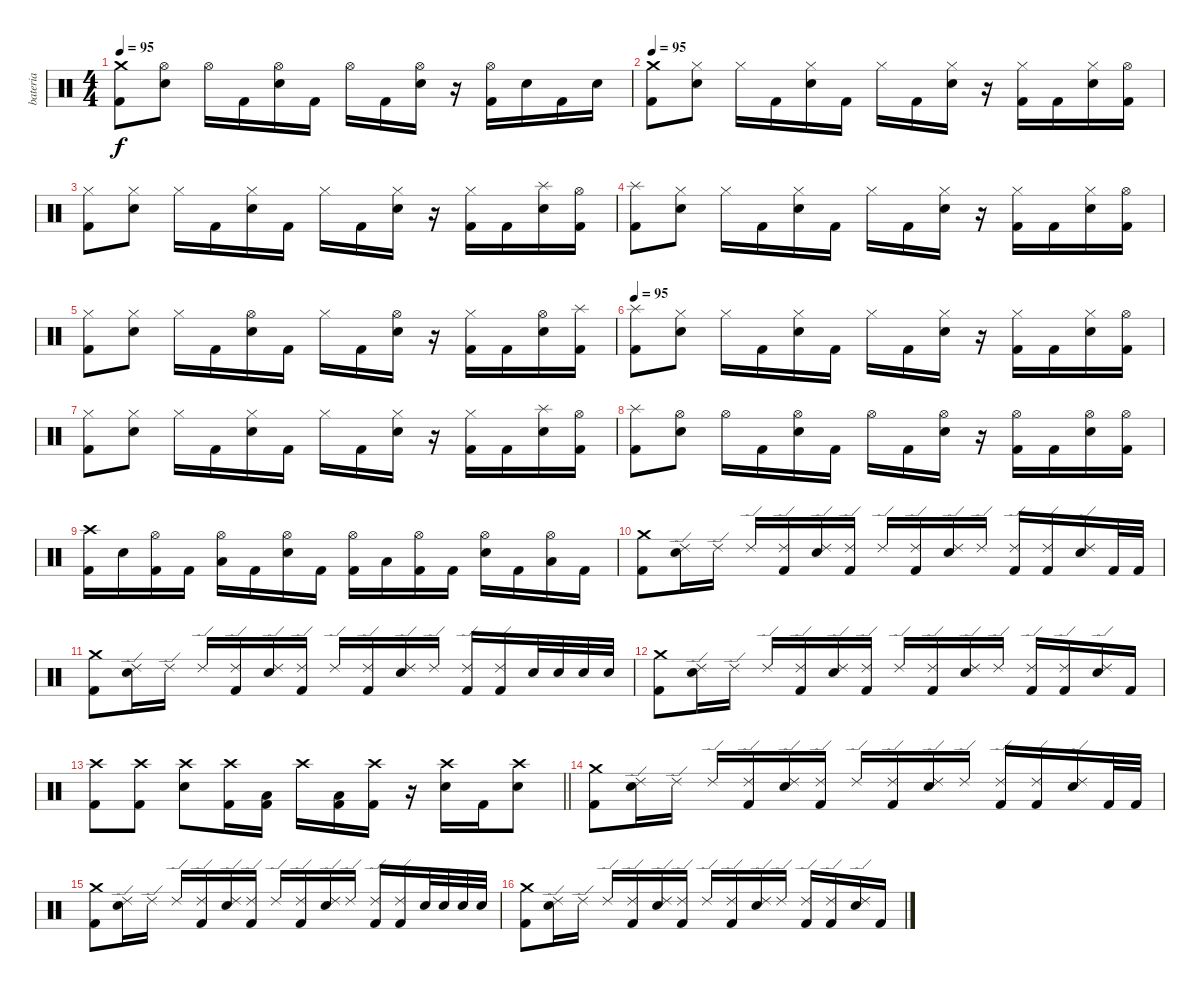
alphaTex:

\track ("bateria" "bateria") {instrument percussion}
\staff {score}
\articulation defaults
\ts (4 4)
\tempo 95
\clef neutral
\ks c
("Crash medium (hit)" "Kick (hit) 2").8{dy f} ("Hi-Hat (open)" "Electric Snare (hit)").8 "Hi-Hat (open)".16 "Kick (hit) 2".16 ("Hi-Hat (open)" "Electric Snare (hit)").16 "Kick (hit) 2".16 "Hi-Hat (open)".16 "Kick (hit) 2".16 ("Hi-Hat (open)" "Electric Snare (hit)").16 r.16 ("Hi-Hat (open)" "Kick (hit) 2").16 "Electric Snare (hit)".16 "Kick (hit) 2".16 "Electric Snare (hit)".16 |
\tempo 95
("Crash medium (hit)" "Kick (hit) 2").8 ("Hi-Hat (closed)" "Electric Snare (hit)").8 "Hi-Hat (closed)".16 "Kick (hit) 2".16 ("Hi-Hat (closed)" "Electric Snare (hit)").16 "Kick (hit) 2".16 "Hi-Hat (closed)".16 "Kick (hit) 2".16 ("Hi-Hat (closed)" "Electric Snare (hit)").16 r.16 ("Hi-Hat (closed)" "Kick (hit) 2").16 "Kick (hit) 2".16 ("Hi-Hat (closed)" "Electric Snare (hit)").16 ("Hi-Hat (open)" "Kick (hit) 2").16 |
("Hi-Hat (closed)" "Kick (hit) 2").8 ("Hi-Hat (closed)" "Electric Snare (hit)").8 "Hi-Hat (closed)".16 "Kick (hit) 2".16 ("Hi-Hat (closed)" "Electric Snare (hit)").16 "Kick (hit) 2".16 "Hi-Hat (closed)".16 "Kick (hit) 2".16 ("Hi-Hat (closed)" "Electric Snare (hit)").16 r.16 ("Hi-Hat (closed)" "Kick (hit) 2").16 "Kick (hit) 2".16 ("Splash (hit)" "Electric Snare (hit)").16 ("Hi-Hat (open)" "Kick (hit) 2").16 |
("Splash (hit)" "Kick (hit) 2").8 ("Hi-Hat (closed)" "Electric Snare (hit)").8 "Hi-Hat (closed)".16 "Kick (hit) 2".16 ("Hi-Hat (closed)" "Electric Snare (hit)").16 "Kick (hit) 2".16 "Hi-Hat (closed)".16 "Kick (hit) 2".16 ("Hi-Hat (closed)" "Electric Snare (hit)").16 r.16 ("Hi-Hat (closed)" "Kick (hit) 2").16 "Kick (hit) 2".16 ("Hi-Hat (closed)" "Electric Snare (hit)").16 ("Hi-Hat (open)" "Kick (hit) 2").16 |
("Hi-Hat (closed)" "Kick (hit) 2").8 ("Hi-Hat (closed)" "Electric Snare (hit)").8 "Hi-Hat (closed)".16 "Kick (hit) 2".16 ("Hi-Hat (open)" "Electric Snare (hit)").16 "Kick (hit) 2".16 "Hi-Hat (closed)".16 "Kick (hit) 2".16 ("Hi-Hat (open)" "Electric Snare (hit)").16 r.16 ("Hi-Hat (closed)" "Kick (hit) 2").16 "Kick (hit) 2".16 ("Hi-Hat (open)" "Electric Snare (hit)").16 ("Splash (hit)" "Kick (hit) 2").16 |
\tempo 95
("Splash (hit)" "Kick (hit) 2").8 ("Hi-Hat (closed)" "Electric Snare (hit)").8 "Hi-Hat (closed)".16 "Kick (hit) 2".16 ("Hi-Hat (closed)" "Electric Snare (hit)").16 "Kick (hit) 2".16 "Hi-Hat (closed)".16 "Kick (hit) 2".16 ("Hi-Hat (closed)" "Electric Snare (hit)").16 r.16 ("Hi-Hat (closed)" "Kick (hit) 2").16 "Kick (hit) 2".16 ("Hi-Hat (closed)" "Electric Snare (hit)").16 ("Hi-Hat (open)" "Kick (hit) 2").16 |
("Hi-Hat (closed)" "Kick (hit) 2").8 ("Hi-Hat (closed)" "Electric Snare (hit)").8 "Hi-Hat (closed)".16 "Kick (hit) 2".16 ("Hi-Hat (closed)" "Electric Snare (hit)").16 "Kick (hit) 2".16 "Hi-Hat (closed)".16 "Kick (hit) 2".16 ("Hi-Hat (closed)" "Electric Snare (hit)").16 r.16 ("Hi-Hat (closed)" "Kick (hit) 2").16 "Kick (hit) 2".16 ("Splash (hit)" "Electric Snare (hit)").16 ("Hi-Hat (open)" "Kick (hit) 2").16 |
("Splash (hit)" "Kick (hit) 2").8 ("Hi-Hat (open)" "Electric Snare (hit)").8 "Hi-Hat (open)".16 "Kick (hit) 2".16 ("Hi-Hat (open)" "Electric Snare (hit)").16 "Kick (hit) 2".16 "Hi-Hat (open)".16 "Kick (hit) 2".16 ("Hi-Hat (open)" "Electric Snare (hit)").16 r.16 ("Hi-Hat (open)" "Kick (hit) 2").16 "Kick (hit) 2".16 ("Hi-Hat (open)" "Electric Snare (hit)").16 ("Hi-Hat (open)" "Kick (hit) 2").16 |
("Crash high (hit)" "Kick (hit) 2").16 "Electric Snare (hit)".16 ("Hi-Hat (open)" "Kick (hit) 2").16 "Kick (hit) 2".16 ("Hi-Hat (open)" "Low Tom (hit)").16 "Kick (hit) 2".16 ("Hi-Hat (open)" "Electric Snare (hit)").16 "Kick (hit) 2".16 ("Hi-Hat (open)" "Kick (hit) 2").16 "Low Tom (hit)".16 ("Hi-Hat (open)" "Kick (hit) 2").16 "Kick (hit) 2".16 ("Hi-Hat (open)" "Electric Snare (hit)").16 "Kick (hit) 2".16 ("Hi-Hat (open)" "Low Tom (hit)").16 "Kick (hit) 2".16 |
("Crash medium (hit)" "Kick (hit) 2").8 ("Ride (edge) 2" "Electric Snare (hit)").16 "Ride (edge) 2".16 "Ride (edge) 2".16 ("Ride (edge) 2" "Kick (hit) 2").16 ("Ride (edge) 2" "Electric Snare (hit)").16 ("Ride (edge) 2" "Kick (hit) 2").16 "Ride (edge) 2".16 ("Ride (edge) 2" "Kick (hit) 2").16 ("Ride (edge) 2" "Electric Snare (hit)").16 "Ride (edge) 2".16 ("Ride (edge) 2" "Kick (hit) 2").16 ("Ride (edge) 2" "Kick (hit) 2").16 ("Ride (edge) 2" "Electric Snare (hit)").16 "Kick (hit) 2".32 "Kick (hit) 2".32 |
("Crash medium (hit)" "Kick (hit) 2").8 ("Ride (edge) 2" "Electric Snare (hit)").16 "Ride (edge) 2".16 "Ride (edge) 2".16 ("Ride (edge) 2" "Kick (hit) 2").16 ("Ride (edge) 2" "Electric Snare (hit)").16 ("Ride (edge) 2" "Kick (hit) 2").16 "Ride (edge) 2".16 ("Ride (edge) 2" "Kick (hit) 2").16 ("Ride (edge) 2" "Electric Snare (hit)").16 "Ride (edge) 2".16 ("Ride (edge) 2" "Kick (hit) 2").16 ("Ride (edge) 2" "Kick (hit) 2").16 "Electric Snare (hit)".32 "Electric Snare (hit)".32 "Electric Snare (hit)".32 "Electric Snare (hit)".32 |
("Crash medium (hit)" "Kick (hit) 2").8 ("Ride (edge) 2" "Electric Snare (hit)").16 "Ride (edge) 2".16 "Ride (edge) 2".16 ("Ride (edge) 2" "Kick (hit) 2").16 ("Ride (edge) 2" "Electric Snare (hit)").16 ("Ride (edge) 2" "Kick (hit) 2").16 "Ride (edge) 2".16 ("Ride (edge) 2" "Kick (hit) 2").16 ("Ride (edge) 2" "Electric Snare (hit)").16 "Ride (edge) 2".16 ("Ride (edge) 2" "Kick (hit) 2").16 ("Ride (edge) 2" "Kick (hit) 2").16 ("Ride (edge) 2" "Electric Snare (hit)").16 "Kick (hit) 2".16 |
\barLineRight lightlight
("Crash high (hit)" "Kick (hit) 2").8 ("Crash high (hit)" "Kick (hit) 2").8 ("Crash high (hit)" "Electric Snare (hit)").8 ("Crash high (hit)" "Kick (hit) 2").16 ("Low Tom (hit)" "Kick (hit) 2").16 "Crash high (hit)".16 ("Low Tom (hit)" "Kick (hit) 2").16 ("Crash high (hit)" "Kick (hit) 2").16 r.16 ("Crash high (hit)" "Electric Snare (hit)").16 "Kick (hit) 2".16 ("Crash high (hit)" "Electric Snare (hit)").8 |
("Crash medium (hit)" "Kick (hit) 2").8 ("Ride (edge) 2" "Electric Snare (hit)").16 "Ride (edge) 2".16 "Ride (edge) 2".16 ("Ride (edge) 2" "Kick (hit) 2").16 ("Ride (edge) 2" "Electric Snare (hit)").16 ("Ride (edge) 2" "Kick (hit) 2").16 "Ride (edge) 2".16 ("Ride (edge) 2" "Kick (hit) 2").16 ("Ride (edge) 2" "Electric Snare (hit)").16 "Ride (edge) 2".16 ("Ride (edge) 2" "Kick (hit) 2").16 ("Ride (edge) 2" "Kick (hit) 2").16 ("Ride (edge) 2" "Electric Snare (hit)").16 "Kick (hit) 2".32 "Kick (hit) 2".32 |
("Crash medium (hit)" "Kick (hit) 2").8 ("Ride (edge) 2" "Electric Snare (hit)").16 "Ride (edge) 2".16 "Ride (edge) 2".16 ("Ride (edge) 2" "Kick (hit) 2").16 ("Ride (edge) 2" "Electric Snare (hit)").16 ("Ride (edge) 2" "Kick (hit) 2").16 "Ride (edge) 2".16 ("Ride (edge) 2" "Kick (hit) 2").16 ("Ride (edge) 2" "Electric Snare (hit)").16 "Ride (edge) 2".16 ("Ride (edge) 2" "Kick (hit) 2").16 ("Ride (edge) 2" "Kick (hit) 2").16 "Electric Snare (hit)".32 "Electric Snare (hit)".32 "Electric Snare (hit)".32 "Electric Snare (hit)".32 |
("Crash medium (hit)" "Kick (hit) 2").8 ("Ride (edge) 2" "Electric Snare (hit)").16 "Ride (edge) 2".16 "Ride (edge) 2".16 ("Ride (edge) 2" "Kick (hit) 2").16 ("Ride (edge) 2" "Electric Snare (hit)").16 ("Ride (edge) 2" "Kick (hit) 2").16 "Ride (edge) 2".16 ("Ride (edge) 2" "Kick (hit) 2").16 ("Ride (edge) 2" "Electric Snare (hit)").16 "Ride (edge) 2".16 ("Ride (edge) 2" "Kick (hit) 2").16 ("Ride (edge) 2" "Kick (hit) 2").16 ("Ride (edge) 2" "Electric Snare (hit)").16 "Kick (hit) 2".16
